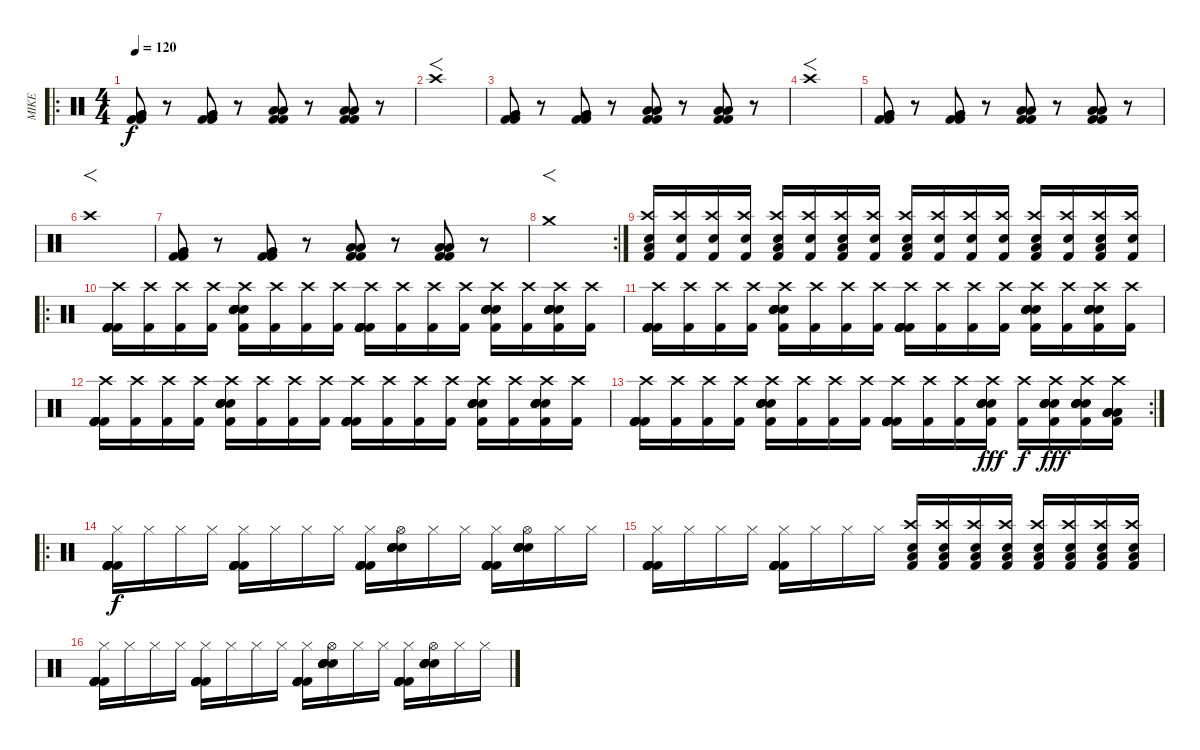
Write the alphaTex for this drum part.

\track ("MIKE" "MIKE") {instrument percussion}
\staff {score}
\articulation defaults
\ro
\ts (4 4)
\tempo 120
\clef neutral
\ks c
("Kick (hit) 2" "Very Low Tom (hit)" "Kick (hit) 2" "Very Low Tom (hit)").8{dy f} r.8 ("Kick (hit) 2" "Very Low Tom (hit)" "Kick (hit) 2" "Very Low Tom (hit)").8 r.8 ("Kick (hit) 2" "Low Floor Tom (hit)" "Kick (hit) 2" "Low Floor Tom (hit)").8 r.8 ("Kick (hit) 2" "Low Tom (hit)" "Kick (hit) 2" "Low Tom (hit)").8 r.8 |
"Crash high (hit)".1{f} |
("Kick (hit) 2" "Very Low Tom (hit)" "Kick (hit) 2" "Very Low Tom (hit)").8 r.8 ("Kick (hit) 2" "Very Low Tom (hit)" "Kick (hit) 2" "Very Low Tom (hit)").8 r.8 ("Kick (hit) 2" "Low Floor Tom (hit)" "Kick (hit) 2" "Low Floor Tom (hit)").8 r.8 ("Kick (hit) 2" "Low Tom (hit)" "Kick (hit) 2" "Low Tom (hit)").8 r.8 |
"Crash high (hit)".1{f} |
("Kick (hit) 2" "Very Low Tom (hit)" "Kick (hit) 2" "Very Low Tom (hit)").8 r.8 ("Kick (hit) 2" "Very Low Tom (hit)" "Kick (hit) 2" "Very Low Tom (hit)").8 r.8 ("Kick (hit) 2" "Low Floor Tom (hit)" "Kick (hit) 2" "Low Floor Tom (hit)").8 r.8 ("Kick (hit) 2" "Low Tom (hit)" "Kick (hit) 2" "Low Tom (hit)").8 r.8 |
"Crash high (hit)".1{f} |
("Kick (hit) 2" "Very Low Tom (hit)" "Kick (hit) 2" "Very Low Tom (hit)").8 r.8 ("Kick (hit) 2" "Very Low Tom (hit)" "Kick (hit) 2" "Very Low Tom (hit)").8 r.8 ("Kick (hit) 2" "Low Floor Tom (hit)" "Kick (hit) 2" "Low Floor Tom (hit)").8 r.8 ("Kick (hit) 2" "Low Tom (hit)" "Kick (hit) 2" "Low Tom (hit)").8 r.8 |
\rc 2 "Crash medium (hit)".1{f}
|
("Crash high (hit)" "Kick (hit) 2" "Low Floor Tom (hit)" "Electric Snare (hit)").16 ("Crash high (hit)" "Kick (hit) 2" "Electric Snare (hit)").16 ("Crash high (hit)" "Kick (hit) 2" "Electric Snare (hit)").16 ("Crash high (hit)" "Kick (hit) 2" "Electric Snare (hit)").16 ("Crash high (hit)" "Kick (hit) 2" "Low Floor Tom (hit)" "Electric Snare (hit)").16 ("Crash high (hit)" "Kick (hit) 2" "Electric Snare (hit)").16 ("Crash high (hit)" "Kick (hit) 2" "Low Floor Tom (hit)" "Electric Snare (hit)").16 ("Crash high (hit)" "Kick (hit) 2" "Electric Snare (hit)").16 ("Crash high (hit)" "Kick (hit) 2" "Low Floor Tom (hit)" "Electric Snare (hit)").16 ("Crash high (hit)" "Kick (hit) 2" "Electric Snare (hit)").16 ("Crash high (hit)" "Kick (hit) 2" "Electric Snare (hit)").16 ("Crash high (hit)" "Kick (hit) 2" "Electric Snare (hit)").16 ("Crash high (hit)" "Kick (hit) 2" "Low Floor Tom (hit)" "Electric Snare (hit)").16 ("Crash high (hit)" "Kick (hit) 2" "Electric Snare (hit)").16 ("Crash high (hit)" "Kick (hit) 2" "Low Floor Tom (hit)" "Electric Snare (hit)").16 ("Crash high (hit)" "Kick (hit) 2" "Electric Snare (hit)").16 |
\ro
("Kick (hit) 2" "Kick (hit) 2" "Kick (hit) 2" "Kick (hit) 2" "Kick (hit) 2" "Crash high (hit)").16 ("Kick (hit) 2" "Crash high (hit)").16 ("Kick (hit) 2" "Crash high (hit)").16 ("Kick (hit) 2" "Crash high (hit)").16 ("Electric Snare (hit)" "Electric Snare (hit)" "Electric Snare (hit)" "Electric Snare (hit)" "Kick (hit) 2" "Crash high (hit)").16 ("Kick (hit) 2" "Crash high (hit)").16 ("Kick (hit) 2" "Crash high (hit)").16 ("Kick (hit) 2" "Crash high (hit)").16 ("Kick (hit) 2" "Kick (hit) 2" "Kick (hit) 2" "Kick (hit) 2" "Kick (hit) 2" "Crash high (hit)").16 ("Kick (hit) 2" "Crash high (hit)").16 ("Kick (hit) 2" "Crash high (hit)").16 ("Kick (hit) 2" "Crash high (hit)").16 ("Electric Snare (hit)" "Electric Snare (hit)" "Electric Snare (hit)" "Electric Snare (hit)" "Kick (hit) 2" "Crash high (hit)").16 ("Kick (hit) 2" "Crash high (hit)").16 ("Electric Snare (hit)" "Electric Snare (hit)" "Electric Snare (hit)" "Electric Snare (hit)" "Kick (hit) 2" "Crash high (hit)").16 ("Kick (hit) 2" "Crash high (hit)").16 |
("Kick (hit) 2" "Kick (hit) 2" "Kick (hit) 2" "Kick (hit) 2" "Kick (hit) 2" "Crash high (hit)").16 ("Kick (hit) 2" "Crash high (hit)").16 ("Kick (hit) 2" "Crash high (hit)").16 ("Kick (hit) 2" "Crash high (hit)").16 ("Electric Snare (hit)" "Electric Snare (hit)" "Electric Snare (hit)" "Electric Snare (hit)" "Kick (hit) 2" "Crash high (hit)").16 ("Kick (hit) 2" "Crash high (hit)").16 ("Kick (hit) 2" "Crash high (hit)").16 ("Kick (hit) 2" "Crash high (hit)").16 ("Kick (hit) 2" "Kick (hit) 2" "Kick (hit) 2" "Kick (hit) 2" "Kick (hit) 2" "Crash high (hit)").16 ("Kick (hit) 2" "Crash high (hit)").16 ("Kick (hit) 2" "Crash high (hit)").16 ("Kick (hit) 2" "Crash high (hit)").16 ("Electric Snare (hit)" "Electric Snare (hit)" "Electric Snare (hit)" "Electric Snare (hit)" "Kick (hit) 2" "Crash high (hit)").16 ("Kick (hit) 2" "Crash high (hit)").16 ("Electric Snare (hit)" "Electric Snare (hit)" "Electric Snare (hit)" "Electric Snare (hit)" "Kick (hit) 2" "Crash high (hit)").16 ("Kick (hit) 2" "Crash high (hit)").16 |
("Kick (hit) 2" "Kick (hit) 2" "Kick (hit) 2" "Kick (hit) 2" "Kick (hit) 2" "Crash high (hit)").16 ("Kick (hit) 2" "Crash high (hit)").16 ("Kick (hit) 2" "Crash high (hit)").16 ("Kick (hit) 2" "Crash high (hit)").16 ("Electric Snare (hit)" "Electric Snare (hit)" "Electric Snare (hit)" "Electric Snare (hit)" "Kick (hit) 2" "Crash high (hit)").16 ("Kick (hit) 2" "Crash high (hit)").16 ("Kick (hit) 2" "Crash high (hit)").16 ("Kick (hit) 2" "Crash high (hit)").16 ("Kick (hit) 2" "Kick (hit) 2" "Kick (hit) 2" "Kick (hit) 2" "Kick (hit) 2" "Crash high (hit)").16 ("Kick (hit) 2" "Crash high (hit)").16 ("Kick (hit) 2" "Crash high (hit)").16 ("Kick (hit) 2" "Crash high (hit)").16 ("Electric Snare (hit)" "Electric Snare (hit)" "Electric Snare (hit)" "Electric Snare (hit)" "Kick (hit) 2" "Crash high (hit)").16 ("Kick (hit) 2" "Crash high (hit)").16 ("Electric Snare (hit)" "Electric Snare (hit)" "Electric Snare (hit)" "Electric Snare (hit)" "Kick (hit) 2" "Crash high (hit)").16 ("Kick (hit) 2" "Crash high (hit)").16 |
\rc 2
("Kick (hit) 2" "Kick (hit) 2" "Kick (hit) 2" "Kick (hit) 2" "Kick (hit) 2" "Crash high (hit)").16 ("Kick (hit) 2" "Crash high (hit)").16 ("Kick (hit) 2" "Crash high (hit)").16 ("Kick (hit) 2" "Crash high (hit)").16 ("Electric Snare (hit)" "Electric Snare (hit)" "Electric Snare (hit)" "Electric Snare (hit)" "Kick (hit) 2" "Crash high (hit)").16 ("Kick (hit) 2" "Crash high (hit)").16 ("Kick (hit) 2" "Crash high (hit)").16 ("Kick (hit) 2" "Crash high (hit)").16 ("Kick (hit) 2" "Kick (hit) 2" "Kick (hit) 2" "Kick (hit) 2" "Kick (hit) 2" "Crash high (hit)").16 ("Kick (hit) 2" "Crash high (hit)").16 ("Kick (hit) 2" "Crash high (hit)").16 ("Electric Snare (hit)" "Electric Snare (hit)" "Electric Snare (hit)" "Electric Snare (hit)" "Kick (hit) 2" "Crash high (hit)").16{dy fff} ("Kick (hit) 2" "Crash high (hit)").16{dy f} ("Electric Snare (hit)" "Electric Snare (hit)" "Electric Snare (hit)" "Electric Snare (hit)" "Kick (hit) 2" "Crash high (hit)").16{dy fff} ("Electric Snare (hit)" "Electric Snare (hit)" "Electric Snare (hit)" "Electric Snare (hit)" "Kick (hit) 2" "Crash high (hit)").16 ("Low Floor Tom (hit)" "Low Floor Tom (hit)" "Low Floor Tom (hit)" "Low Floor Tom (hit)" "Kick (hit) 2" "Crash high (hit)").16 |
\ro
("Kick (hit) 2" "Kick (hit) 2" "Kick (hit) 2" "Kick (hit) 2" "Kick (hit) 2" "Hi-Hat (closed)").16{dy f} "Hi-Hat (closed)".16 "Hi-Hat (closed)".16 "Hi-Hat (closed)".16 ("Kick (hit) 2" "Kick (hit) 2" "Kick (hit) 2" "Kick (hit) 2" "Kick (hit) 2" "Hi-Hat (closed)").16 "Hi-Hat (closed)".16 "Hi-Hat (closed)".16 "Hi-Hat (closed)".16 ("Kick (hit) 2" "Kick (hit) 2" "Kick (hit) 2" "Kick (hit) 2" "Kick (hit) 2" "Hi-Hat (closed)").16 ("Electric Snare (hit)" "Electric Snare (hit)" "Electric Snare (hit)" "Electric Snare (hit)" "Electric Snare (hit)" "Hi-Hat (open)").16 "Hi-Hat (closed)".16 "Hi-Hat (closed)".16 ("Kick (hit) 2" "Kick (hit) 2" "Kick (hit) 2" "Kick (hit) 2" "Kick (hit) 2" "Hi-Hat (closed)").16 ("Electric Snare (hit)" "Electric Snare (hit)" "Electric Snare (hit)" "Electric Snare (hit)" "Electric Snare (hit)" "Hi-Hat (open)").16 "Hi-Hat (closed)".16 "Hi-Hat (closed)".16 |
("Kick (hit) 2" "Kick (hit) 2" "Kick (hit) 2" "Kick (hit) 2" "Kick (hit) 2" "Hi-Hat (closed)").16 "Hi-Hat (closed)".16 "Hi-Hat (closed)".16 "Hi-Hat (closed)".16 ("Kick (hit) 2" "Kick (hit) 2" "Kick (hit) 2" "Kick (hit) 2" "Kick (hit) 2" "Hi-Hat (closed)").16 "Hi-Hat (closed)".16 "Hi-Hat (closed)".16 "Hi-Hat (closed)".16 ("Crash high (hit)" "Low Floor Tom (hit)" "Electric Snare (hit)" "Kick (hit) 2").16 ("Crash high (hit)" "Low Floor Tom (hit)" "Electric Snare (hit)" "Kick (hit) 2").16 ("Crash high (hit)" "Low Floor Tom (hit)" "Electric Snare (hit)" "Kick (hit) 2").16 ("Crash high (hit)" "Low Floor Tom (hit)" "Electric Snare (hit)" "Kick (hit) 2").16 ("Crash high (hit)" "Low Floor Tom (hit)" "Electric Snare (hit)" "Kick (hit) 2").16 ("Crash high (hit)" "Low Floor Tom (hit)" "Electric Snare (hit)" "Kick (hit) 2").16 ("Crash high (hit)" "Low Floor Tom (hit)" "Electric Snare (hit)" "Kick (hit) 2").16 ("Crash high (hit)" "Low Floor Tom (hit)" "Electric Snare (hit)" "Kick (hit) 2").16 |
("Kick (hit) 2" "Kick (hit) 2" "Kick (hit) 2" "Kick (hit) 2" "Kick (hit) 2" "Hi-Hat (closed)").16 "Hi-Hat (closed)".16 "Hi-Hat (closed)".16 "Hi-Hat (closed)".16 ("Kick (hit) 2" "Kick (hit) 2" "Kick (hit) 2" "Kick (hit) 2" "Kick (hit) 2" "Hi-Hat (closed)").16 "Hi-Hat (closed)".16 "Hi-Hat (closed)".16 "Hi-Hat (closed)".16 ("Kick (hit) 2" "Kick (hit) 2" "Kick (hit) 2" "Kick (hit) 2" "Kick (hit) 2" "Hi-Hat (closed)").16 ("Electric Snare (hit)" "Electric Snare (hit)" "Electric Snare (hit)" "Electric Snare (hit)" "Electric Snare (hit)" "Hi-Hat (open)").16 "Hi-Hat (closed)".16 "Hi-Hat (closed)".16 ("Kick (hit) 2" "Kick (hit) 2" "Kick (hit) 2" "Kick (hit) 2" "Kick (hit) 2" "Hi-Hat (closed)").16 ("Electric Snare (hit)" "Electric Snare (hit)" "Electric Snare (hit)" "Electric Snare (hit)" "Electric Snare (hit)" "Hi-Hat (open)").16 "Hi-Hat (closed)".16 "Hi-Hat (closed)".16
